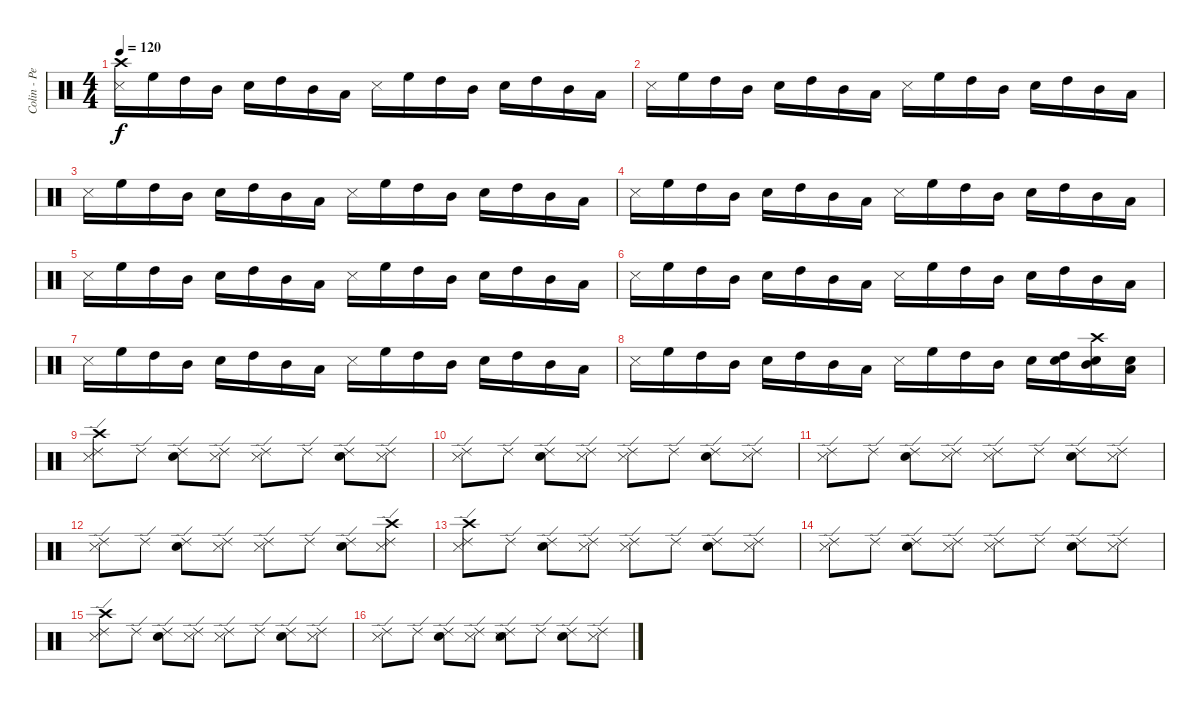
\track ("Colin - Percussion" "Colin - Pe") {instrument percussion}
\staff {score}
\articulation defaults
\ts (4 4)
\tempo 120
\clef neutral
\ks c
("Crash high (hit)" "Metronome (hit)").16{dy f} "High Floor Tom (hit)".16 "High Tom (hit)".16 "Mid Tom (hit)".16 "Electric Snare (hit)".16 "High Tom (hit)".16 "Mid Tom (hit)".16 "Low Tom (hit)".16 "Metronome (hit)".16 "High Floor Tom (hit)".16 "High Tom (hit)".16 "Mid Tom (hit)".16 "Electric Snare (hit)".16 "High Tom (hit)".16 "Mid Tom (hit)".16 "Low Tom (hit)".16 |
"Metronome (hit)".16 "High Floor Tom (hit)".16 "High Tom (hit)".16 "Mid Tom (hit)".16 "Electric Snare (hit)".16 "High Tom (hit)".16 "Mid Tom (hit)".16 "Low Tom (hit)".16 "Metronome (hit)".16 "High Floor Tom (hit)".16 "High Tom (hit)".16 "Mid Tom (hit)".16 "Electric Snare (hit)".16 "High Tom (hit)".16 "Mid Tom (hit)".16 "Low Tom (hit)".16 |
"Metronome (hit)".16 "High Floor Tom (hit)".16 "High Tom (hit)".16 "Mid Tom (hit)".16 "Electric Snare (hit)".16 "High Tom (hit)".16 "Mid Tom (hit)".16 "Low Tom (hit)".16 "Metronome (hit)".16 "High Floor Tom (hit)".16 "High Tom (hit)".16 "Mid Tom (hit)".16 "Electric Snare (hit)".16 "High Tom (hit)".16 "Mid Tom (hit)".16 "Low Tom (hit)".16 |
"Metronome (hit)".16 "High Floor Tom (hit)".16 "High Tom (hit)".16 "Mid Tom (hit)".16 "Electric Snare (hit)".16 "High Tom (hit)".16 "Mid Tom (hit)".16 "Low Tom (hit)".16 "Metronome (hit)".16 "High Floor Tom (hit)".16 "High Tom (hit)".16 "Mid Tom (hit)".16 "Electric Snare (hit)".16 "High Tom (hit)".16 "Mid Tom (hit)".16 "Low Tom (hit)".16 |
"Metronome (hit)".16 "High Floor Tom (hit)".16 "High Tom (hit)".16 "Mid Tom (hit)".16 "Electric Snare (hit)".16 "High Tom (hit)".16 "Mid Tom (hit)".16 "Low Tom (hit)".16 "Metronome (hit)".16 "High Floor Tom (hit)".16 "High Tom (hit)".16 "Mid Tom (hit)".16 "Electric Snare (hit)".16 "High Tom (hit)".16 "Mid Tom (hit)".16 "Low Tom (hit)".16 |
"Metronome (hit)".16 "High Floor Tom (hit)".16 "High Tom (hit)".16 "Mid Tom (hit)".16 "Electric Snare (hit)".16 "High Tom (hit)".16 "Mid Tom (hit)".16 "Low Tom (hit)".16 "Metronome (hit)".16 "High Floor Tom (hit)".16 "High Tom (hit)".16 "Mid Tom (hit)".16 "Electric Snare (hit)".16 "High Tom (hit)".16 "Mid Tom (hit)".16 "Low Tom (hit)".16 |
"Metronome (hit)".16 "High Floor Tom (hit)".16 "High Tom (hit)".16 "Mid Tom (hit)".16 "Electric Snare (hit)".16 "High Tom (hit)".16 "Mid Tom (hit)".16 "Low Tom (hit)".16 "Metronome (hit)".16 "High Floor Tom (hit)".16 "High Tom (hit)".16 "Mid Tom (hit)".16 "Electric Snare (hit)".16 "High Tom (hit)".16 "Mid Tom (hit)".16 "Low Tom (hit)".16 |
"Metronome (hit)".16 "High Floor Tom (hit)".16 "High Tom (hit)".16 "Mid Tom (hit)".16 "Electric Snare (hit)".16 "High Tom (hit)".16 "Mid Tom (hit)".16 "Low Tom (hit)".16 "Metronome (hit)".16 "High Floor Tom (hit)".16 "High Tom (hit)".16 "Mid Tom (hit)".16 "Electric Snare (hit)".16 ("High Tom (hit)" "Electric Snare (hit)").16 ("Crash high (hit)" "Mid Tom (hit)" "Electric Snare (hit)").16 ("Low Tom (hit)" "Electric Snare (hit)").16 |
("Ride (edge) 2" "Crash high (hit)" "Metronome (hit)").8 "Ride (edge) 2".8 ("Ride (edge) 2" "Electric Snare (hit)").8 ("Ride (edge) 2" "Metronome (hit)").8 ("Ride (edge) 2" "Metronome (hit)").8 "Ride (edge) 2".8 ("Ride (edge) 2" "Electric Snare (hit)").8 ("Ride (edge) 2" "Metronome (hit)").8 |
("Ride (edge) 2" "Metronome (hit)").8 "Ride (edge) 2".8 ("Ride (edge) 2" "Electric Snare (hit)").8 ("Ride (edge) 2" "Metronome (hit)").8 ("Ride (edge) 2" "Metronome (hit)").8 "Ride (edge) 2".8 ("Ride (edge) 2" "Electric Snare (hit)").8 ("Ride (edge) 2" "Metronome (hit)").8 |
("Ride (edge) 2" "Metronome (hit)").8 "Ride (edge) 2".8 ("Ride (edge) 2" "Electric Snare (hit)").8 ("Ride (edge) 2" "Metronome (hit)").8 ("Ride (edge) 2" "Metronome (hit)").8 "Ride (edge) 2".8 ("Ride (edge) 2" "Electric Snare (hit)").8 ("Ride (edge) 2" "Metronome (hit)").8 |
("Ride (edge) 2" "Metronome (hit)").8 "Ride (edge) 2".8 ("Ride (edge) 2" "Electric Snare (hit)").8 ("Ride (edge) 2" "Metronome (hit)").8 ("Ride (edge) 2" "Metronome (hit)").8 "Ride (edge) 2".8 ("Ride (edge) 2" "Electric Snare (hit)").8 ("Ride (edge) 2" "Crash high (hit)" "Metronome (hit)").8 |
("Ride (edge) 2" "Crash high (hit)" "Metronome (hit)").8 "Ride (edge) 2".8 ("Ride (edge) 2" "Electric Snare (hit)").8 ("Ride (edge) 2" "Metronome (hit)").8 ("Ride (edge) 2" "Metronome (hit)").8 "Ride (edge) 2".8 ("Ride (edge) 2" "Electric Snare (hit)").8 ("Ride (edge) 2" "Metronome (hit)").8 |
("Ride (edge) 2" "Metronome (hit)").8 "Ride (edge) 2".8 ("Ride (edge) 2" "Electric Snare (hit)").8 ("Ride (edge) 2" "Metronome (hit)").8 ("Ride (edge) 2" "Metronome (hit)").8 "Ride (edge) 2".8 ("Ride (edge) 2" "Electric Snare (hit)").8 ("Ride (edge) 2" "Metronome (hit)").8 |
("Ride (edge) 2" "Crash high (hit)" "Metronome (hit)").8 "Ride (edge) 2".8 ("Ride (edge) 2" "Electric Snare (hit)").8 ("Ride (edge) 2" "Metronome (hit)").8 ("Ride (edge) 2" "Metronome (hit)").8 "Ride (edge) 2".8 ("Ride (edge) 2" "Electric Snare (hit)").8 ("Ride (edge) 2" "Metronome (hit)").8 |
("Ride (edge) 2" "Metronome (hit)").8 "Ride (edge) 2".8 ("Ride (edge) 2" "Electric Snare (hit)").8 ("Ride (edge) 2" "Metronome (hit)").8 ("Ride (edge) 2" "Electric Snare (hit)" "Metronome (hit)").8 "Ride (edge) 2".8 ("Ride (edge) 2" "Electric Snare (hit)").8 ("Ride (edge) 2" "Metronome (hit)").8
